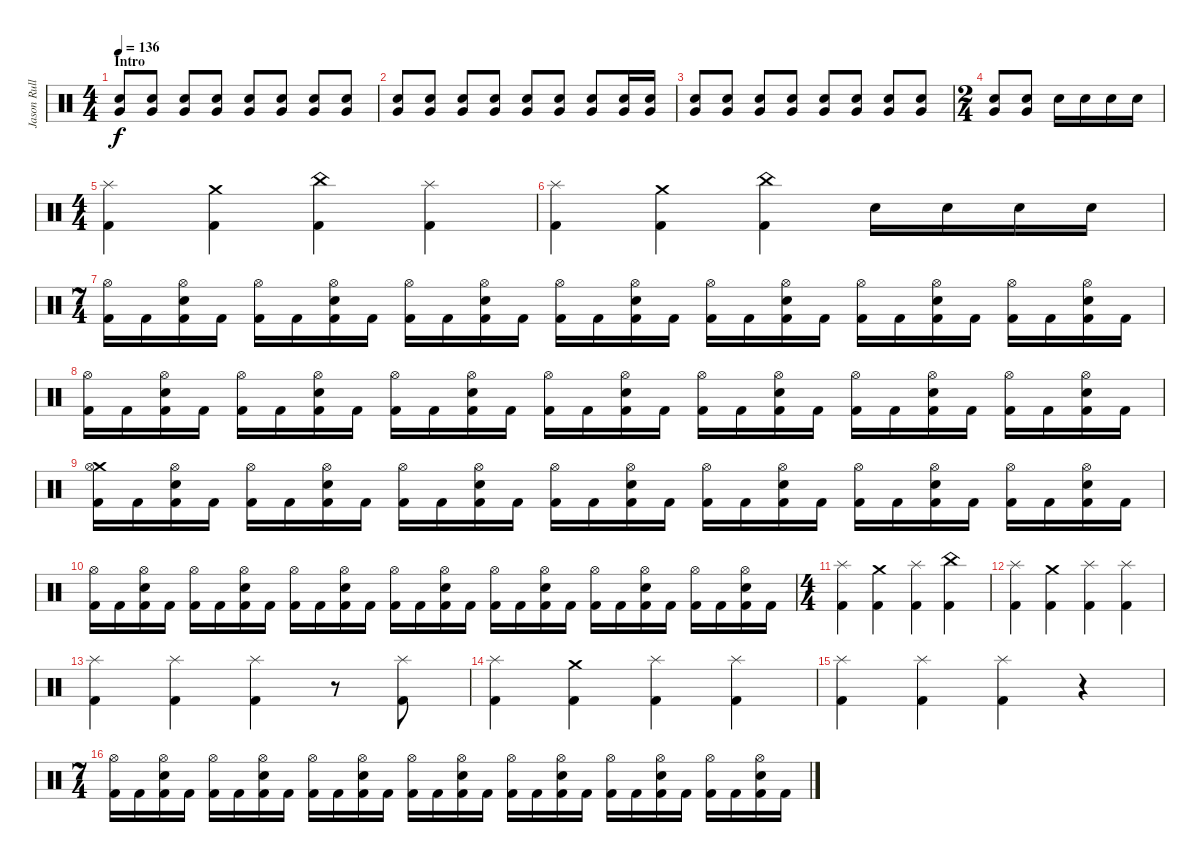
\track ("Jason Rullo" "Jason Rull") {instrument percussion}
\staff {score}
\articulation defaults
\ts (4 4)
\section ("" "Intro")
\tempo 136
\clef neutral
\ks c
("Very Low Tom (hit)" "Electric Snare (hit)").8{dy f} ("Very Low Tom (hit)" "Electric Snare (hit)").8 ("Very Low Tom (hit)" "Electric Snare (hit)").8 ("Very Low Tom (hit)" "Electric Snare (hit)").8 ("Very Low Tom (hit)" "Electric Snare (hit)").8 ("Very Low Tom (hit)" "Electric Snare (hit)").8 ("Very Low Tom (hit)" "Electric Snare (hit)").8 ("Very Low Tom (hit)" "Electric Snare (hit)").8 |
("Very Low Tom (hit)" "Electric Snare (hit)").8 ("Very Low Tom (hit)" "Electric Snare (hit)").8 ("Very Low Tom (hit)" "Electric Snare (hit)").8 ("Very Low Tom (hit)" "Electric Snare (hit)").8 ("Very Low Tom (hit)" "Electric Snare (hit)").8 ("Very Low Tom (hit)" "Electric Snare (hit)").8 ("Very Low Tom (hit)" "Electric Snare (hit)").8 ("Very Low Tom (hit)" "Electric Snare (hit)").16 ("Very Low Tom (hit)" "Electric Snare (hit)").16 |
("Very Low Tom (hit)" "Electric Snare (hit)").8 ("Very Low Tom (hit)" "Electric Snare (hit)").8 ("Very Low Tom (hit)" "Electric Snare (hit)").8 ("Very Low Tom (hit)" "Electric Snare (hit)").8 ("Very Low Tom (hit)" "Electric Snare (hit)").8 ("Very Low Tom (hit)" "Electric Snare (hit)").8 ("Very Low Tom (hit)" "Electric Snare (hit)").8 ("Very Low Tom (hit)" "Electric Snare (hit)").8 |
\ts (2 4)
("Very Low Tom (hit)" "Electric Snare (hit)").8 ("Very Low Tom (hit)" "Electric Snare (hit)").8 "Electric Snare (hit)".16 "Electric Snare (hit)".16 "Electric Snare (hit)".16 "Electric Snare (hit)".16 |
\ts (4 4)
("Splash (hit)" "Kick (hit) 2").4 ("Crash medium (hit)" "Kick (hit) 2").4 ("China (hit)" "Kick (hit) 2").4 ("Splash (hit)" "Kick (hit) 2").4 |
("Splash (hit)" "Kick (hit) 2").4 ("Crash medium (hit)" "Kick (hit) 2").4 ("China (hit)" "Kick (hit) 2").4 "Electric Snare (hit)".16 "Electric Snare (hit)".16 "Electric Snare (hit)".16 "Electric Snare (hit)".16 |
\ts (7 4)
("Hi-Hat (open)" "Kick (hit) 2").16 "Kick (hit) 2".16 ("Hi-Hat (open)" "Electric Snare (hit)" "Kick (hit) 2").16 "Kick (hit) 2".16 ("Hi-Hat (open)" "Kick (hit) 2").16 "Kick (hit) 2".16 ("Hi-Hat (open)" "Electric Snare (hit)" "Kick (hit) 2").16 "Kick (hit) 2".16 ("Hi-Hat (open)" "Kick (hit) 2").16 "Kick (hit) 2".16 ("Hi-Hat (open)" "Electric Snare (hit)" "Kick (hit) 2").16 "Kick (hit) 2".16 ("Hi-Hat (open)" "Kick (hit) 2").16 "Kick (hit) 2".16 ("Hi-Hat (open)" "Electric Snare (hit)" "Kick (hit) 2").16 "Kick (hit) 2".16 ("Hi-Hat (open)" "Kick (hit) 2").16 "Kick (hit) 2".16 ("Hi-Hat (open)" "Electric Snare (hit)" "Kick (hit) 2").16 "Kick (hit) 2".16 ("Hi-Hat (open)" "Kick (hit) 2").16 "Kick (hit) 2".16 ("Hi-Hat (open)" "Electric Snare (hit)" "Kick (hit) 2").16 "Kick (hit) 2".16 ("Hi-Hat (open)" "Kick (hit) 2").16 "Kick (hit) 2".16 ("Hi-Hat (open)" "Electric Snare (hit)" "Kick (hit) 2").16 "Kick (hit) 2".16 |
("Hi-Hat (open)" "Kick (hit) 2").16 "Kick (hit) 2".16 ("Hi-Hat (open)" "Electric Snare (hit)" "Kick (hit) 2").16 "Kick (hit) 2".16 ("Hi-Hat (open)" "Kick (hit) 2").16 "Kick (hit) 2".16 ("Hi-Hat (open)" "Electric Snare (hit)" "Kick (hit) 2").16 "Kick (hit) 2".16 ("Hi-Hat (open)" "Kick (hit) 2").16 "Kick (hit) 2".16 ("Hi-Hat (open)" "Electric Snare (hit)" "Kick (hit) 2").16 "Kick (hit) 2".16 ("Hi-Hat (open)" "Kick (hit) 2").16 "Kick (hit) 2".16 ("Hi-Hat (open)" "Electric Snare (hit)" "Kick (hit) 2").16 "Kick (hit) 2".16 ("Hi-Hat (open)" "Kick (hit) 2").16 "Kick (hit) 2".16 ("Hi-Hat (open)" "Electric Snare (hit)" "Kick (hit) 2").16 "Kick (hit) 2".16 ("Hi-Hat (open)" "Kick (hit) 2").16 "Kick (hit) 2".16 ("Hi-Hat (open)" "Electric Snare (hit)" "Kick (hit) 2").16 "Kick (hit) 2".16 ("Hi-Hat (open)" "Kick (hit) 2").16 "Kick (hit) 2".16 ("Hi-Hat (open)" "Electric Snare (hit)" "Kick (hit) 2").16 "Kick (hit) 2".16 |
("Crash medium (hit)" "Hi-Hat (open)" "Kick (hit) 2").16 "Kick (hit) 2".16 ("Hi-Hat (open)" "Electric Snare (hit)" "Kick (hit) 2").16 "Kick (hit) 2".16 ("Hi-Hat (open)" "Kick (hit) 2").16 "Kick (hit) 2".16 ("Hi-Hat (open)" "Electric Snare (hit)" "Kick (hit) 2").16 "Kick (hit) 2".16 ("Hi-Hat (open)" "Kick (hit) 2").16 "Kick (hit) 2".16 ("Hi-Hat (open)" "Electric Snare (hit)" "Kick (hit) 2").16 "Kick (hit) 2".16 ("Hi-Hat (open)" "Kick (hit) 2").16 "Kick (hit) 2".16 ("Hi-Hat (open)" "Electric Snare (hit)" "Kick (hit) 2").16 "Kick (hit) 2".16 ("Hi-Hat (open)" "Kick (hit) 2").16 "Kick (hit) 2".16 ("Hi-Hat (open)" "Electric Snare (hit)" "Kick (hit) 2").16 "Kick (hit) 2".16 ("Hi-Hat (open)" "Kick (hit) 2").16 "Kick (hit) 2".16 ("Hi-Hat (open)" "Electric Snare (hit)" "Kick (hit) 2").16 "Kick (hit) 2".16 ("Hi-Hat (open)" "Kick (hit) 2").16 "Kick (hit) 2".16 ("Hi-Hat (open)" "Electric Snare (hit)" "Kick (hit) 2").16 "Kick (hit) 2".16 |
("Hi-Hat (open)" "Kick (hit) 2").16 "Kick (hit) 2".16 ("Hi-Hat (open)" "Electric Snare (hit)" "Kick (hit) 2").16 "Kick (hit) 2".16 ("Hi-Hat (open)" "Kick (hit) 2").16 "Kick (hit) 2".16 ("Hi-Hat (open)" "Electric Snare (hit)" "Kick (hit) 2").16 "Kick (hit) 2".16 ("Hi-Hat (open)" "Kick (hit) 2").16 "Kick (hit) 2".16 ("Hi-Hat (open)" "Electric Snare (hit)" "Kick (hit) 2").16 "Kick (hit) 2".16 ("Hi-Hat (open)" "Kick (hit) 2").16 "Kick (hit) 2".16 ("Hi-Hat (open)" "Electric Snare (hit)" "Kick (hit) 2").16 "Kick (hit) 2".16 ("Hi-Hat (open)" "Kick (hit) 2").16 "Kick (hit) 2".16 ("Hi-Hat (open)" "Electric Snare (hit)" "Kick (hit) 2").16 "Kick (hit) 2".16 ("Hi-Hat (open)" "Kick (hit) 2").16 "Kick (hit) 2".16 ("Hi-Hat (open)" "Electric Snare (hit)" "Kick (hit) 2").16 "Kick (hit) 2".16 ("Hi-Hat (open)" "Kick (hit) 2").16 "Kick (hit) 2".16 ("Hi-Hat (open)" "Electric Snare (hit)" "Kick (hit) 2").16 "Kick (hit) 2".16 |
\ts (4 4)
("Splash (hit)" "Kick (hit) 2").4 ("Crash medium (hit)" "Kick (hit) 2").4 ("Splash (hit)" "Kick (hit) 2").4 ("China (hit)" "Kick (hit) 2").4 |
("Splash (hit)" "Kick (hit) 2").4 ("Crash medium (hit)" "Kick (hit) 2").4 ("Splash (hit)" "Kick (hit) 2").4 ("Splash (hit)" "Kick (hit) 2").4 |
("Splash (hit)" "Kick (hit) 2").4 ("Splash (hit)" "Kick (hit) 2").4 ("Splash (hit)" "Kick (hit) 2").4 r.8 ("Splash (hit)" "Kick (hit) 2").8 |
("Splash (hit)" "Kick (hit) 2").4 ("Crash medium (hit)" "Kick (hit) 2").4 ("Splash (hit)" "Kick (hit) 2").4 ("Splash (hit)" "Kick (hit) 2").4 |
("Splash (hit)" "Kick (hit) 2").4 ("Splash (hit)" "Kick (hit) 2").4 ("Splash (hit)" "Kick (hit) 2").4 r.4 |
\ts (7 4)
("Hi-Hat (open)" "Kick (hit) 2").16 "Kick (hit) 2".16 ("Hi-Hat (open)" "Electric Snare (hit)" "Kick (hit) 2").16 "Kick (hit) 2".16 ("Hi-Hat (open)" "Kick (hit) 2").16 "Kick (hit) 2".16 ("Hi-Hat (open)" "Electric Snare (hit)" "Kick (hit) 2").16 "Kick (hit) 2".16 ("Hi-Hat (open)" "Kick (hit) 2").16 "Kick (hit) 2".16 ("Hi-Hat (open)" "Electric Snare (hit)" "Kick (hit) 2").16 "Kick (hit) 2".16 ("Hi-Hat (open)" "Kick (hit) 2").16 "Kick (hit) 2".16 ("Hi-Hat (open)" "Electric Snare (hit)" "Kick (hit) 2").16 "Kick (hit) 2".16 ("Hi-Hat (open)" "Kick (hit) 2").16 "Kick (hit) 2".16 ("Hi-Hat (open)" "Electric Snare (hit)" "Kick (hit) 2").16 "Kick (hit) 2".16 ("Hi-Hat (open)" "Kick (hit) 2").16 "Kick (hit) 2".16 ("Hi-Hat (open)" "Electric Snare (hit)" "Kick (hit) 2").16 "Kick (hit) 2".16 ("Hi-Hat (open)" "Kick (hit) 2").16 "Kick (hit) 2".16 ("Hi-Hat (open)" "Electric Snare (hit)" "Kick (hit) 2").16 "Kick (hit) 2".16
